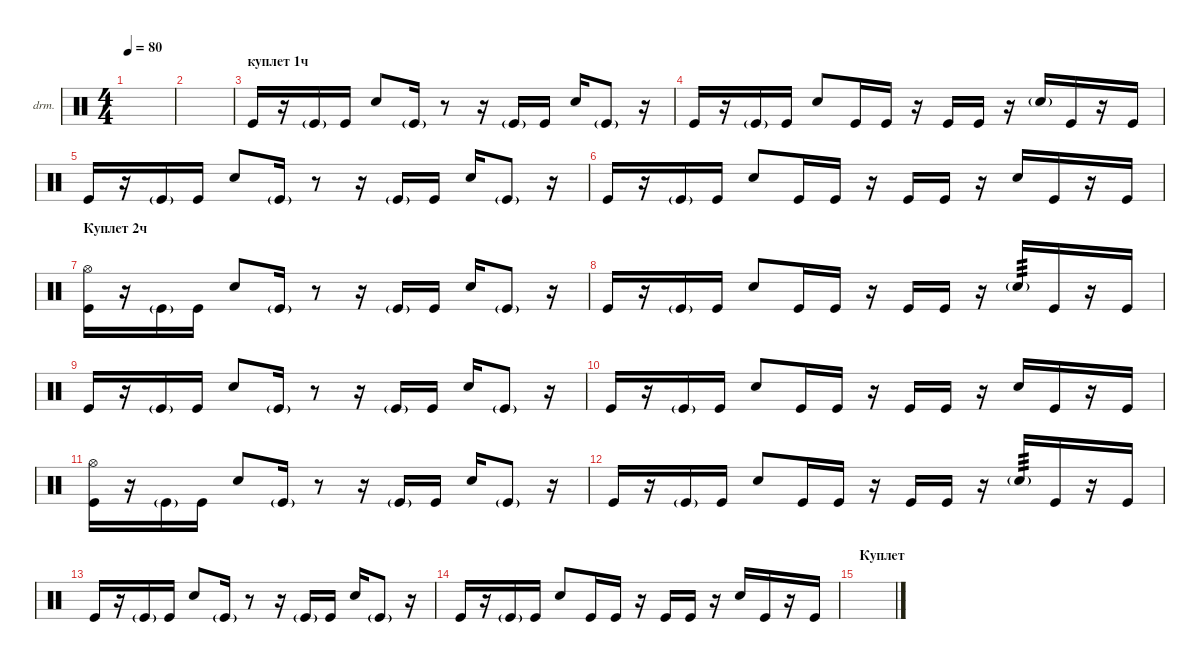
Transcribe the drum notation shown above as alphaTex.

\defaultSystemsLayout 4
\hideDynamics
\bracketExtendMode nobrackets
\firstSystemTrackNameOrientation horizontal
\otherSystemsTrackNameOrientation horizontal
\track ("Drumkit" "drm.") {instrument percussion}
\staff {score}
\articulation defaults
\ts (4 4)
\tempo 80
\clef neutral
\ks c
|
|
\section ("" "куплет 1ч")
"Kick (hit)".16 r.16 "Kick (hit)"{g}.16 "Kick (hit)".16 "Snare (hit) 2".8 "Kick (hit)"{g}.16 r.8 r.16 "Kick (hit)"{g}.16 "Kick (hit)".16 "Snare (hit) 2".16 "Kick (hit)"{g}.8 r.16 |
"Kick (hit)".16 r.16 "Kick (hit)"{g}.16 "Kick (hit)".16 "Snare (hit) 2".8 "Kick (hit)".16 "Kick (hit)".16 r.16 "Kick (hit)".16 "Kick (hit)".16 r.16 "Snare (hit) 2"{g}.16 "Kick (hit)".16 r.16 "Kick (hit)".16 |
"Kick (hit)".16 r.16 "Kick (hit)"{g}.16 "Kick (hit)".16 "Snare (hit) 2".8 "Kick (hit)"{g}.16 r.8 r.16 "Kick (hit)"{g}.16 "Kick (hit)".16 "Snare (hit) 2".16 "Kick (hit)"{g}.8 r.16 |
"Kick (hit)".16 r.16 "Kick (hit)"{g}.16 "Kick (hit)".16 "Snare (hit) 2".8 "Kick (hit)".16 "Kick (hit)".16 r.16 "Kick (hit)".16 "Kick (hit)".16 r.16 "Snare (hit) 2".16 "Kick (hit)".16 r.16 "Kick (hit)".16 |
\section ("" "Куплет 2ч")
("Kick (hit)" "Hi-Hat (open)").16 r.16 "Kick (hit)"{g}.16 "Kick (hit)".16 "Snare (hit) 2".8 "Kick (hit)"{g}.16 r.8 r.16 "Kick (hit)"{g}.16 "Kick (hit)".16 "Snare (hit) 2".16 "Kick (hit)"{g}.8 r.16 |
"Kick (hit)".16 r.16 "Kick (hit)"{g}.16 "Kick (hit)".16 "Snare (hit) 2".8 "Kick (hit)".16 "Kick (hit)".16 r.16 "Kick (hit)".16 "Kick (hit)".16 r.16 "Snare (hit) 2"{g}.16{tp 3} "Kick (hit)".16 r.16 "Kick (hit)".16 |
"Kick (hit)".16 r.16 "Kick (hit)"{g}.16 "Kick (hit)".16 "Snare (hit) 2".8 "Kick (hit)"{g}.16 r.8 r.16 "Kick (hit)"{g}.16 "Kick (hit)".16 "Snare (hit) 2".16 "Kick (hit)"{g}.8 r.16 |
"Kick (hit)".16 r.16 "Kick (hit)"{g}.16 "Kick (hit)".16 "Snare (hit) 2".8 "Kick (hit)".16 "Kick (hit)".16 r.16 "Kick (hit)".16 "Kick (hit)".16 r.16 "Snare (hit) 2".16 "Kick (hit)".16 r.16 "Kick (hit)".16 |
("Kick (hit)" "Hi-Hat (open)").16 r.16 "Kick (hit)"{g}.16 "Kick (hit)".16 "Snare (hit) 2".8 "Kick (hit)"{g}.16 r.8 r.16 "Kick (hit)"{g}.16 "Kick (hit)".16 "Snare (hit) 2".16 "Kick (hit)"{g}.8 r.16 |
"Kick (hit)".16 r.16 "Kick (hit)"{g}.16 "Kick (hit)".16 "Snare (hit) 2".8 "Kick (hit)".16 "Kick (hit)".16 r.16 "Kick (hit)".16 "Kick (hit)".16 r.16 "Snare (hit) 2"{g}.16{tp 3} "Kick (hit)".16 r.16 "Kick (hit)".16 |
"Kick (hit)".16 r.16 "Kick (hit)"{g}.16 "Kick (hit)".16 "Snare (hit) 2".8 "Kick (hit)"{g}.16 r.8 r.16 "Kick (hit)"{g}.16 "Kick (hit)".16 "Snare (hit) 2".16 "Kick (hit)"{g}.8 r.16 |
"Kick (hit)".16 r.16 "Kick (hit)"{g}.16 "Kick (hit)".16 "Snare (hit) 2".8 "Kick (hit)".16 "Kick (hit)".16 r.16 "Kick (hit)".16 "Kick (hit)".16 r.16 "Snare (hit) 2".16 "Kick (hit)".16 r.16 "Kick (hit)".16 |
\section ("" "Куплет")
